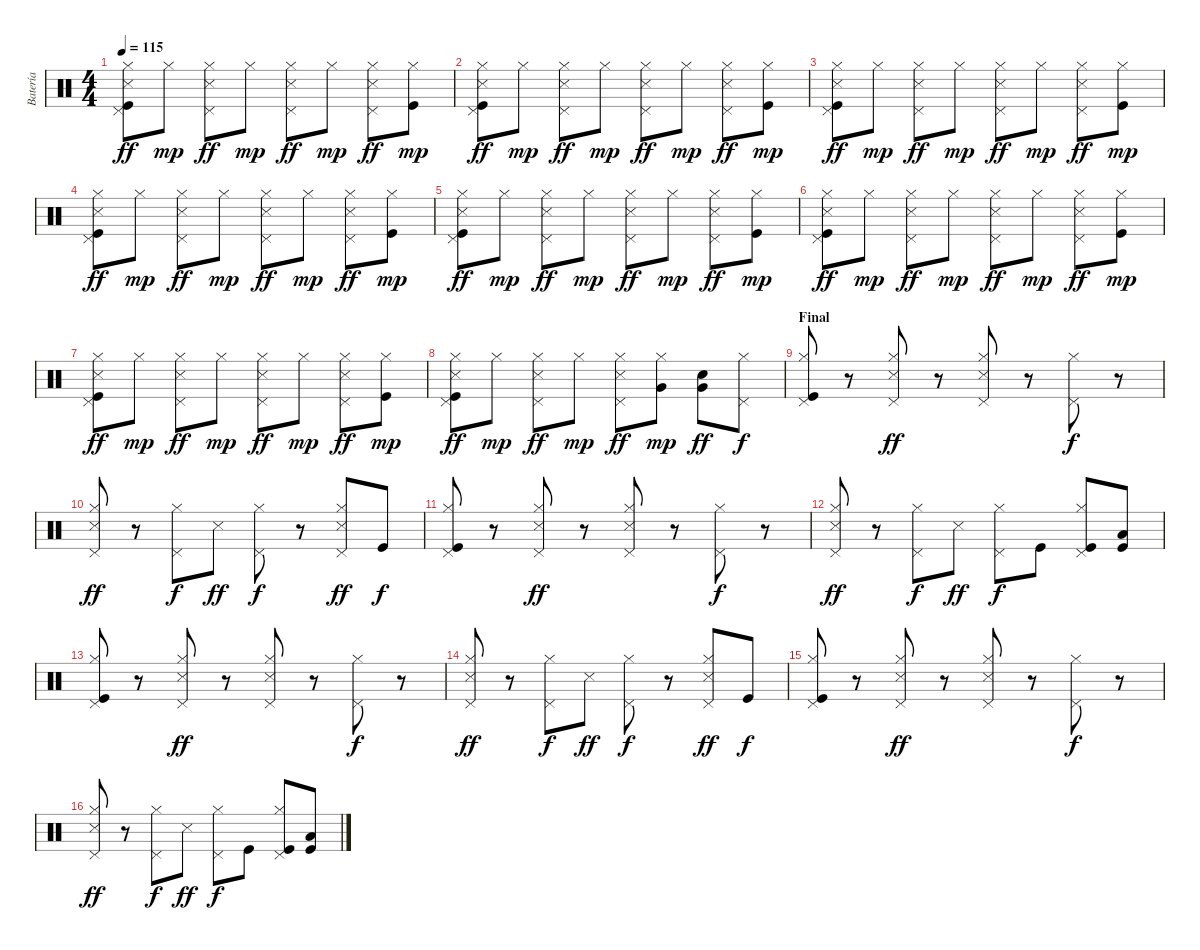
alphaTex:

\track ("Batería" "Batería") {instrument percussion}
\staff {score}
\articulation defaults
\ts (4 4)
\tempo 115
\clef neutral
\ks c
("Pedal Hi-Hat (hit)" "Hi-Hat (closed)" "Snare (side stick) 3" "Kick (hit)").8{dy ff} "Hi-Hat (closed)".8{dy mp} ("Pedal Hi-Hat (hit)" "Hi-Hat (closed)" "Snare (side stick) 3").8{dy ff} "Hi-Hat (closed)".8{dy mp} ("Pedal Hi-Hat (hit)" "Hi-Hat (closed)" "Snare (side stick) 3").8{dy ff} "Hi-Hat (closed)".8{dy mp} ("Pedal Hi-Hat (hit)" "Hi-Hat (closed)" "Snare (side stick) 3").8{dy ff} ("Hi-Hat (closed)" "Kick (hit)").8{dy mp} |
("Pedal Hi-Hat (hit)" "Hi-Hat (closed)" "Snare (side stick) 3" "Kick (hit)").8{dy ff} "Hi-Hat (closed)".8{dy mp} ("Pedal Hi-Hat (hit)" "Hi-Hat (closed)" "Snare (side stick) 3").8{dy ff} "Hi-Hat (closed)".8{dy mp} ("Pedal Hi-Hat (hit)" "Hi-Hat (closed)" "Snare (side stick) 3").8{dy ff} "Hi-Hat (closed)".8{dy mp} ("Pedal Hi-Hat (hit)" "Hi-Hat (closed)" "Snare (side stick) 3").8{dy ff} ("Hi-Hat (closed)" "Kick (hit)").8{dy mp} |
("Pedal Hi-Hat (hit)" "Hi-Hat (closed)" "Snare (side stick) 3" "Kick (hit)").8{dy ff} "Hi-Hat (closed)".8{dy mp} ("Pedal Hi-Hat (hit)" "Hi-Hat (closed)" "Snare (side stick) 3").8{dy ff} "Hi-Hat (closed)".8{dy mp} ("Pedal Hi-Hat (hit)" "Hi-Hat (closed)" "Snare (side stick) 3").8{dy ff} "Hi-Hat (closed)".8{dy mp} ("Pedal Hi-Hat (hit)" "Hi-Hat (closed)" "Snare (side stick) 3").8{dy ff} ("Hi-Hat (closed)" "Kick (hit)").8{dy mp} |
("Pedal Hi-Hat (hit)" "Hi-Hat (closed)" "Snare (side stick) 3" "Kick (hit)").8{dy ff} "Hi-Hat (closed)".8{dy mp} ("Pedal Hi-Hat (hit)" "Hi-Hat (closed)" "Snare (side stick) 3").8{dy ff} "Hi-Hat (closed)".8{dy mp} ("Pedal Hi-Hat (hit)" "Hi-Hat (closed)" "Snare (side stick) 3").8{dy ff} "Hi-Hat (closed)".8{dy mp} ("Pedal Hi-Hat (hit)" "Hi-Hat (closed)" "Snare (side stick) 3").8{dy ff} ("Hi-Hat (closed)" "Kick (hit)").8{dy mp} |
("Pedal Hi-Hat (hit)" "Hi-Hat (closed)" "Snare (side stick) 3" "Kick (hit)").8{dy ff} "Hi-Hat (closed)".8{dy mp} ("Pedal Hi-Hat (hit)" "Hi-Hat (closed)" "Snare (side stick) 3").8{dy ff} "Hi-Hat (closed)".8{dy mp} ("Pedal Hi-Hat (hit)" "Hi-Hat (closed)" "Snare (side stick) 3").8{dy ff} "Hi-Hat (closed)".8{dy mp} ("Pedal Hi-Hat (hit)" "Hi-Hat (closed)" "Snare (side stick) 3").8{dy ff} ("Hi-Hat (closed)" "Kick (hit)").8{dy mp} |
("Pedal Hi-Hat (hit)" "Hi-Hat (closed)" "Snare (side stick) 3" "Kick (hit)").8{dy ff} "Hi-Hat (closed)".8{dy mp} ("Pedal Hi-Hat (hit)" "Hi-Hat (closed)" "Snare (side stick) 3").8{dy ff} "Hi-Hat (closed)".8{dy mp} ("Pedal Hi-Hat (hit)" "Hi-Hat (closed)" "Snare (side stick) 3").8{dy ff} "Hi-Hat (closed)".8{dy mp} ("Pedal Hi-Hat (hit)" "Hi-Hat (closed)" "Snare (side stick) 3").8{dy ff} ("Hi-Hat (closed)" "Kick (hit)").8{dy mp} |
("Pedal Hi-Hat (hit)" "Hi-Hat (closed)" "Snare (side stick) 3" "Kick (hit)").8{dy ff} "Hi-Hat (closed)".8{dy mp} ("Pedal Hi-Hat (hit)" "Hi-Hat (closed)" "Snare (side stick) 3").8{dy ff} "Hi-Hat (closed)".8{dy mp} ("Pedal Hi-Hat (hit)" "Hi-Hat (closed)" "Snare (side stick) 3").8{dy ff} "Hi-Hat (closed)".8{dy mp} ("Pedal Hi-Hat (hit)" "Hi-Hat (closed)" "Snare (side stick) 3").8{dy ff} ("Hi-Hat (closed)" "Kick (hit)").8{dy mp} |
("Pedal Hi-Hat (hit)" "Hi-Hat (closed)" "Snare (side stick) 3" "Kick (hit)").8{dy ff} "Hi-Hat (closed)".8{dy mp} ("Pedal Hi-Hat (hit)" "Hi-Hat (closed)" "Snare (side stick) 3").8{dy ff} "Hi-Hat (closed)".8{dy mp} ("Pedal Hi-Hat (hit)" "Hi-Hat (closed)" "Snare (side stick) 3").8{dy ff} ("Hi-Hat (closed)" "Very Low Tom (hit)").8{dy mp} ("Snare (hit) 2" "Very Low Tom (hit)").8{dy ff} ("Pedal Hi-Hat (hit)" "Hi-Hat (closed)").8{dy f} |
\section ("" "Final")
("Pedal Hi-Hat (hit)" "Hi-Hat (closed)" "Kick (hit)").8 r.8 ("Pedal Hi-Hat (hit)" "Hi-Hat (closed)" "Snare (side stick) 3").8{dy ff} r.8 ("Pedal Hi-Hat (hit)" "Hi-Hat (closed)" "Snare (side stick) 3").8 r.8 ("Pedal Hi-Hat (hit)" "Hi-Hat (closed)").8{dy f} r.8 |
("Pedal Hi-Hat (hit)" "Hi-Hat (closed)" "Snare (side stick) 3").8{dy ff} r.8 ("Pedal Hi-Hat (hit)" "Hi-Hat (closed)").8{dy f} "Snare (side stick) 3".8{dy ff} ("Pedal Hi-Hat (hit)" "Hi-Hat (closed)").8{dy f} r.8 ("Pedal Hi-Hat (hit)" "Hi-Hat (closed)" "Snare (side stick) 3").8{dy ff} "Kick (hit)".8{dy f} |
("Pedal Hi-Hat (hit)" "Hi-Hat (closed)" "Kick (hit)").8 r.8 ("Pedal Hi-Hat (hit)" "Hi-Hat (closed)" "Snare (side stick) 3").8{dy ff} r.8 ("Pedal Hi-Hat (hit)" "Hi-Hat (closed)" "Snare (side stick) 3").8 r.8 ("Pedal Hi-Hat (hit)" "Hi-Hat (closed)").8{dy f} r.8 |
("Pedal Hi-Hat (hit)" "Hi-Hat (closed)" "Snare (side stick) 3").8{dy ff} r.8 ("Pedal Hi-Hat (hit)" "Hi-Hat (closed)").8{dy f} "Snare (side stick) 3".8{dy ff} ("Pedal Hi-Hat (hit)" "Hi-Hat (closed)").8{dy f} "Kick (hit)".8 ("Pedal Hi-Hat (hit)" "Hi-Hat (closed)" "Kick (hit)").8 ("Low Tom (hit)" "Kick (hit)").8 |
("Pedal Hi-Hat (hit)" "Hi-Hat (closed)" "Kick (hit)").8 r.8 ("Pedal Hi-Hat (hit)" "Hi-Hat (closed)" "Snare (side stick) 3").8{dy ff} r.8 ("Pedal Hi-Hat (hit)" "Hi-Hat (closed)" "Snare (side stick) 3").8 r.8 ("Pedal Hi-Hat (hit)" "Hi-Hat (closed)").8{dy f} r.8 |
("Pedal Hi-Hat (hit)" "Hi-Hat (closed)" "Snare (side stick) 3").8{dy ff} r.8 ("Pedal Hi-Hat (hit)" "Hi-Hat (closed)").8{dy f} "Snare (side stick) 3".8{dy ff} ("Pedal Hi-Hat (hit)" "Hi-Hat (closed)").8{dy f} r.8 ("Pedal Hi-Hat (hit)" "Hi-Hat (closed)" "Snare (side stick) 3").8{dy ff} "Kick (hit)".8{dy f} |
("Pedal Hi-Hat (hit)" "Hi-Hat (closed)" "Kick (hit)").8 r.8 ("Pedal Hi-Hat (hit)" "Hi-Hat (closed)" "Snare (side stick) 3").8{dy ff} r.8 ("Pedal Hi-Hat (hit)" "Hi-Hat (closed)" "Snare (side stick) 3").8 r.8 ("Pedal Hi-Hat (hit)" "Hi-Hat (closed)").8{dy f} r.8 |
("Pedal Hi-Hat (hit)" "Hi-Hat (closed)" "Snare (side stick) 3").8{dy ff} r.8 ("Pedal Hi-Hat (hit)" "Hi-Hat (closed)").8{dy f} "Snare (side stick) 3".8{dy ff} ("Pedal Hi-Hat (hit)" "Hi-Hat (closed)").8{dy f} "Kick (hit)".8 ("Pedal Hi-Hat (hit)" "Hi-Hat (closed)" "Kick (hit)").8 ("Low Tom (hit)" "Kick (hit)").8
